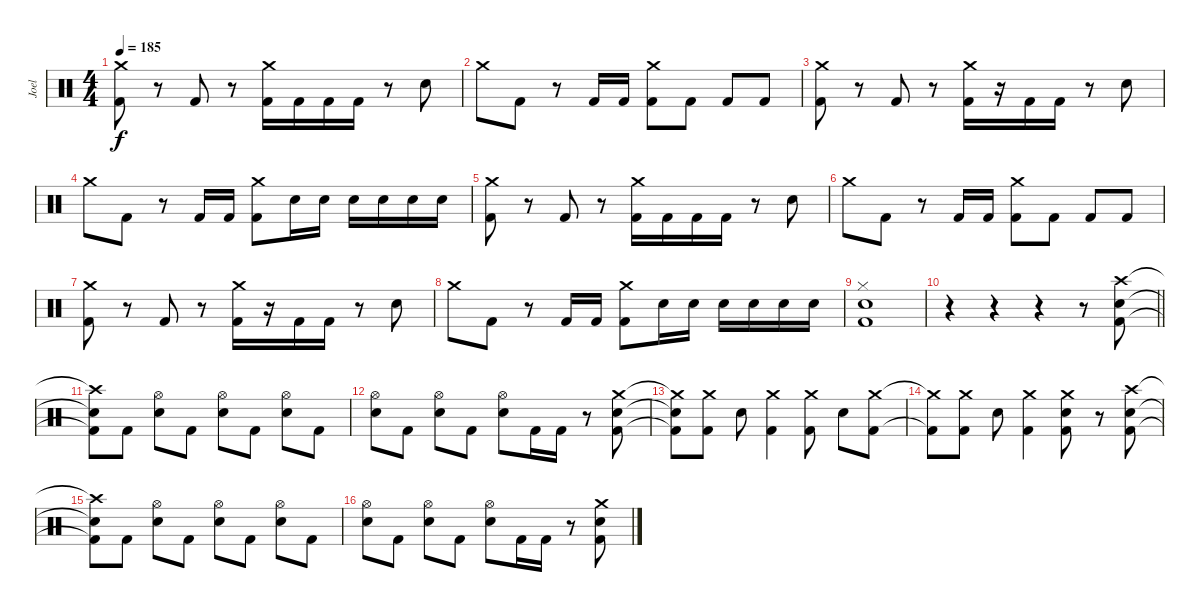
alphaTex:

\track ("Joel" "Joel") {instrument percussion}
\staff {score}
\articulation defaults
\ts (4 4)
\tempo 185
\clef neutral
\ks c
("Crash medium (hit)" "Kick (hit) 2").8{dy f} r.8 "Kick (hit) 2".8 r.8 ("Crash medium (hit)" "Kick (hit) 2").16 "Kick (hit) 2".16 "Kick (hit) 2".16 "Kick (hit) 2".16 r.8 "Electric Snare (hit)".8 |
"Crash medium (hit)".8 "Kick (hit) 2".8 r.8 "Kick (hit) 2".16 "Kick (hit) 2".16 ("Crash medium (hit)" "Kick (hit) 2").8 "Kick (hit) 2".8 "Kick (hit) 2".8 "Kick (hit) 2".8 |
("Crash medium (hit)" "Kick (hit) 2").8 r.8 "Kick (hit) 2".8 r.8 ("Crash medium (hit)" "Kick (hit) 2").16 r.16 "Kick (hit) 2".16 "Kick (hit) 2".16 r.8 "Electric Snare (hit)".8 |
"Crash medium (hit)".8 "Kick (hit) 2".8 r.8 "Kick (hit) 2".16 "Kick (hit) 2".16 ("Crash medium (hit)" "Kick (hit) 2").8 "Electric Snare (hit)".16 "Electric Snare (hit)".16 "Electric Snare (hit)".16 "Electric Snare (hit)".16 "Electric Snare (hit)".16 "Electric Snare (hit)".16 |
("Crash medium (hit)" "Kick (hit) 2").8 r.8 "Kick (hit) 2".8 r.8 ("Crash medium (hit)" "Kick (hit) 2").16 "Kick (hit) 2".16 "Kick (hit) 2".16 "Kick (hit) 2".16 r.8 "Electric Snare (hit)".8 |
"Crash medium (hit)".8 "Kick (hit) 2".8 r.8 "Kick (hit) 2".16 "Kick (hit) 2".16 ("Crash medium (hit)" "Kick (hit) 2").8 "Kick (hit) 2".8 "Kick (hit) 2".8 "Kick (hit) 2".8 |
("Crash medium (hit)" "Kick (hit) 2").8 r.8 "Kick (hit) 2".8 r.8 ("Crash medium (hit)" "Kick (hit) 2").16 r.16 "Kick (hit) 2".16 "Kick (hit) 2".16 r.8 "Electric Snare (hit)".8 |
"Crash medium (hit)".8 "Kick (hit) 2".8 r.8 "Kick (hit) 2".16 "Kick (hit) 2".16 ("Crash medium (hit)" "Kick (hit) 2").8 "Electric Snare (hit)".16 "Electric Snare (hit)".16 "Electric Snare (hit)".16 "Electric Snare (hit)".16 "Electric Snare (hit)".16 "Electric Snare (hit)".16 |
("Electric Snare (hit)" "Hi-Hat (closed)" "Kick (hit) 2").1 |
\barLineRight lightlight
r.4 r.4 r.4 r.8 ("Crash high (hit)" "Electric Snare (hit)" "Kick (hit) 2").8 |
\section ("" "")
("Crash high (hit)"{t} "Electric Snare (hit)"{t} "Kick (hit) 2"{t}).8 "Kick (hit) 2".8 ("Hi-Hat (open)" "Electric Snare (hit)").8 "Kick (hit) 2".8 ("Hi-Hat (open)" "Electric Snare (hit)").8 "Kick (hit) 2".8 ("Hi-Hat (open)" "Electric Snare (hit)").8 "Kick (hit) 2".8 |
("Hi-Hat (open)" "Electric Snare (hit)").8 "Kick (hit) 2".8 ("Hi-Hat (open)" "Electric Snare (hit)").8 "Kick (hit) 2".8 ("Hi-Hat (open)" "Electric Snare (hit)").8 "Kick (hit) 2".16 "Kick (hit) 2".16 r.8 ("Crash medium (hit)" "Electric Snare (hit)" "Kick (hit) 2").8 |
("Crash medium (hit)"{t} "Electric Snare (hit)"{t} "Kick (hit) 2"{t}).8 ("Crash medium (hit)" "Kick (hit) 2").8 "Electric Snare (hit)".8 ("Crash medium (hit)" "Kick (hit) 2").4 ("Crash medium (hit)" "Kick (hit) 2").8 "Electric Snare (hit)".8 ("Crash medium (hit)" "Kick (hit) 2").8 |
("Crash medium (hit)"{t} "Kick (hit) 2"{t}).8 ("Crash medium (hit)" "Kick (hit) 2").8 "Electric Snare (hit)".8 ("Crash medium (hit)" "Kick (hit) 2").4 ("Crash medium (hit)" "Electric Snare (hit)" "Kick (hit) 2").8 r.8 ("Crash high (hit)" "Electric Snare (hit)" "Kick (hit) 2").8 |
("Crash high (hit)"{t} "Electric Snare (hit)"{t} "Kick (hit) 2"{t}).8 "Kick (hit) 2".8 ("Hi-Hat (open)" "Electric Snare (hit)").8 "Kick (hit) 2".8 ("Hi-Hat (open)" "Electric Snare (hit)").8 "Kick (hit) 2".8 ("Hi-Hat (open)" "Electric Snare (hit)").8 "Kick (hit) 2".8 |
("Hi-Hat (open)" "Electric Snare (hit)").8 "Kick (hit) 2".8 ("Hi-Hat (open)" "Electric Snare (hit)").8 "Kick (hit) 2".8 ("Hi-Hat (open)" "Electric Snare (hit)").8 "Kick (hit) 2".16 "Kick (hit) 2".16 r.8 ("Crash medium (hit)" "Electric Snare (hit)" "Kick (hit) 2").8
